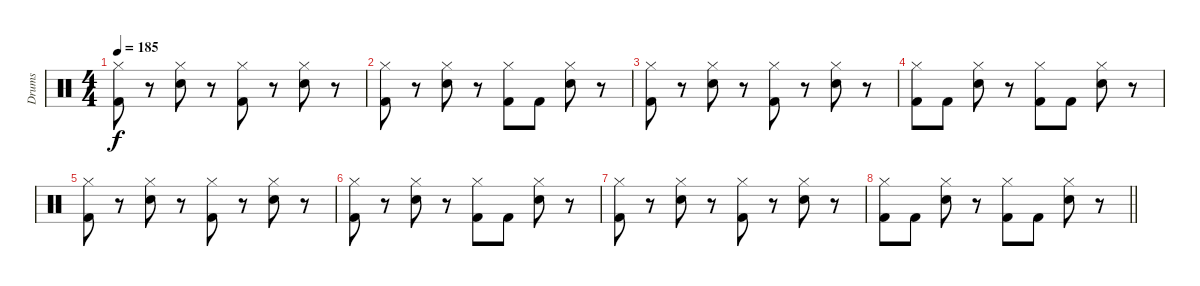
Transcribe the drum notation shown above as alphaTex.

\track ("Drums" "Drums") {instrument percussion}
\staff {score}
\articulation defaults
\ts (4 4)
\tempo 185
\clef neutral
\ks c
("Hi-Hat (closed)" "Kick (hit) 2").8{dy f} r.8 ("Hi-Hat (closed)" "Electric Snare (hit)").8 r.8 ("Hi-Hat (closed)" "Kick (hit) 2").8 r.8 ("Hi-Hat (closed)" "Electric Snare (hit)").8 r.8 |
("Hi-Hat (closed)" "Kick (hit) 2").8 r.8 ("Hi-Hat (closed)" "Electric Snare (hit)").8 r.8 ("Hi-Hat (closed)" "Kick (hit) 2").8 "Kick (hit) 2".8 ("Hi-Hat (closed)" "Electric Snare (hit)").8 r.8 |
("Hi-Hat (closed)" "Kick (hit) 2").8 r.8 ("Hi-Hat (closed)" "Electric Snare (hit)").8 r.8 ("Hi-Hat (closed)" "Kick (hit) 2").8 r.8 ("Hi-Hat (closed)" "Electric Snare (hit)").8 r.8 |
("Hi-Hat (closed)" "Kick (hit) 2").8 "Kick (hit) 2".8 ("Hi-Hat (closed)" "Electric Snare (hit)").8 r.8 ("Hi-Hat (closed)" "Kick (hit) 2").8 "Kick (hit) 2".8 ("Hi-Hat (closed)" "Electric Snare (hit)").8 r.8 |
("Hi-Hat (closed)" "Kick (hit) 2").8 r.8 ("Hi-Hat (closed)" "Electric Snare (hit)").8 r.8 ("Hi-Hat (closed)" "Kick (hit) 2").8 r.8 ("Hi-Hat (closed)" "Electric Snare (hit)").8 r.8 |
("Hi-Hat (closed)" "Kick (hit) 2").8 r.8 ("Hi-Hat (closed)" "Electric Snare (hit)").8 r.8 ("Hi-Hat (closed)" "Kick (hit) 2").8 "Kick (hit) 2".8 ("Hi-Hat (closed)" "Electric Snare (hit)").8 r.8 |
("Hi-Hat (closed)" "Kick (hit) 2").8 r.8 ("Hi-Hat (closed)" "Electric Snare (hit)").8 r.8 ("Hi-Hat (closed)" "Kick (hit) 2").8 r.8 ("Hi-Hat (closed)" "Electric Snare (hit)").8 r.8 |
\barLineRight lightlight
("Hi-Hat (closed)" "Kick (hit) 2").8 "Kick (hit) 2".8 ("Hi-Hat (closed)" "Electric Snare (hit)").8 r.8 ("Hi-Hat (closed)" "Kick (hit) 2").8 "Kick (hit) 2".8 ("Hi-Hat (closed)" "Electric Snare (hit)").8 r.8
